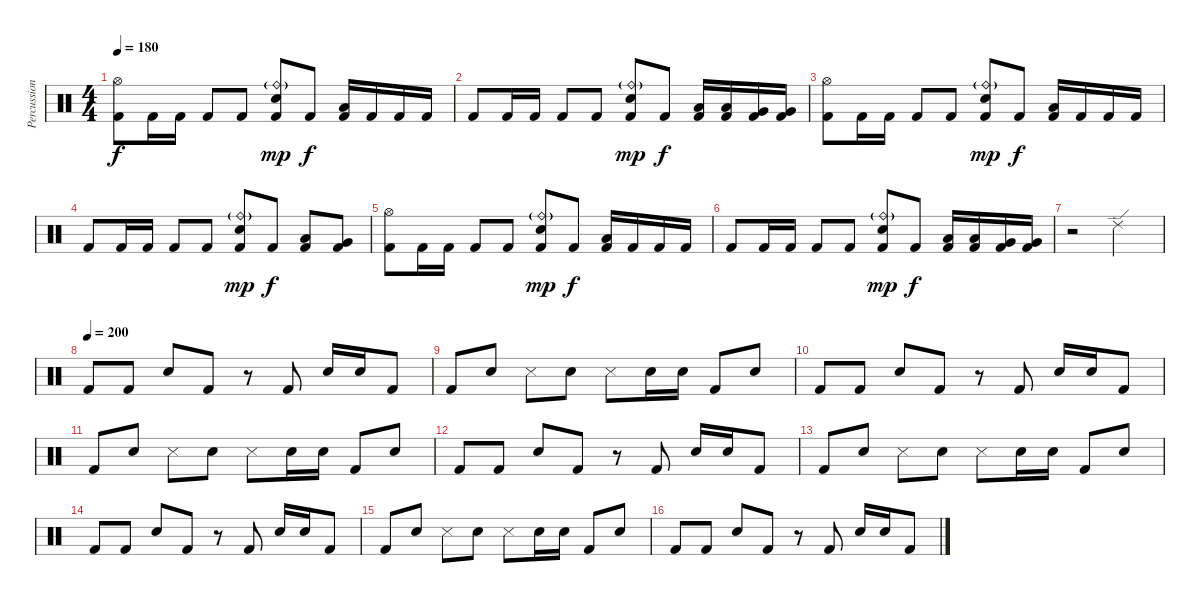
\track ("Percussion" "Percussion") {instrument percussion}
\staff {score}
\articulation defaults
\ts (4 4)
\tempo 180
\clef neutral
\ks c
("Hi-Hat (open)" "Kick (hit) 2").8{dy f} "Kick (hit) 2".16 "Kick (hit) 2".16 "Kick (hit) 2".8 "Kick (hit) 2".8 ("Ride (bell)"{g} "Electric Snare (hit)" "Kick (hit) 2").8{dy mp} "Kick (hit) 2".8{dy f} ("Low Floor Tom (hit)" "Kick (hit) 2").16 "Kick (hit) 2".16 "Kick (hit) 2".16 "Kick (hit) 2".16 |
"Kick (hit) 2".8 "Kick (hit) 2".16 "Kick (hit) 2".16 "Kick (hit) 2".8 "Kick (hit) 2".8 ("Ride (bell)"{g} "Electric Snare (hit)" "Kick (hit) 2").8{dy mp} "Kick (hit) 2".8{dy f} ("Low Tom (hit)" "Kick (hit) 2").16 ("Low Tom (hit)" "Kick (hit) 2").16 ("Very Low Tom (hit)" "Kick (hit) 2").16 ("Very Low Tom (hit)" "Kick (hit) 2").16 |
("Hi-Hat (open)" "Kick (hit) 2").8 "Kick (hit) 2".16 "Kick (hit) 2".16 "Kick (hit) 2".8 "Kick (hit) 2".8 ("Ride (bell)"{g} "Electric Snare (hit)" "Kick (hit) 2").8{dy mp} "Kick (hit) 2".8{dy f} ("Low Floor Tom (hit)" "Kick (hit) 2").16 "Kick (hit) 2".16 "Kick (hit) 2".16 "Kick (hit) 2".16 |
"Kick (hit) 2".8 "Kick (hit) 2".16 "Kick (hit) 2".16 "Kick (hit) 2".8 "Kick (hit) 2".8 ("Ride (bell)"{g} "Electric Snare (hit)" "Kick (hit) 2").8{dy mp} "Kick (hit) 2".8{dy f} ("Low Tom (hit)" "Kick (hit) 2").8 ("Very Low Tom (hit)" "Kick (hit) 2").8 |
("Hi-Hat (open)" "Kick (hit) 2").8 "Kick (hit) 2".16 "Kick (hit) 2".16 "Kick (hit) 2".8 "Kick (hit) 2".8 ("Ride (bell)"{g} "Electric Snare (hit)" "Kick (hit) 2").8{dy mp} "Kick (hit) 2".8{dy f} ("Low Floor Tom (hit)" "Kick (hit) 2").16 "Kick (hit) 2".16 "Kick (hit) 2".16 "Kick (hit) 2".16 |
"Kick (hit) 2".8 "Kick (hit) 2".16 "Kick (hit) 2".16 "Kick (hit) 2".8 "Kick (hit) 2".8 ("Ride (bell)"{g} "Electric Snare (hit)" "Kick (hit) 2").8{dy mp} "Kick (hit) 2".8{dy f} ("Low Tom (hit)" "Kick (hit) 2").16 ("Low Tom (hit)" "Kick (hit) 2").16 ("Very Low Tom (hit)" "Kick (hit) 2").16 ("Very Low Tom (hit)" "Kick (hit) 2").16 |
r.2 "Ride (edge) 2".2 |
\tempo (200)
"Kick (hit) 2".8 "Kick (hit) 2".8 "Electric Snare (hit)".8 "Kick (hit) 2".8 r.8 "Kick (hit) 2".8 "Electric Snare (hit)".16 "Electric Snare (hit)".16 "Kick (hit) 2".8 |
"Kick (hit) 2".8 "Electric Snare (hit)".8 "Snare (side stick) 3".8 "Electric Snare (hit)".8 "Snare (side stick) 3".8 "Electric Snare (hit)".16 "Electric Snare (hit)".16 "Kick (hit) 2".8 "Electric Snare (hit)".8 |
"Kick (hit) 2".8 "Kick (hit) 2".8 "Electric Snare (hit)".8 "Kick (hit) 2".8 r.8 "Kick (hit) 2".8 "Electric Snare (hit)".16 "Electric Snare (hit)".16 "Kick (hit) 2".8 |
"Kick (hit) 2".8 "Electric Snare (hit)".8 "Snare (side stick) 3".8 "Electric Snare (hit)".8 "Snare (side stick) 3".8 "Electric Snare (hit)".16 "Electric Snare (hit)".16 "Kick (hit) 2".8 "Electric Snare (hit)".8 |
"Kick (hit) 2".8 "Kick (hit) 2".8 "Electric Snare (hit)".8 "Kick (hit) 2".8 r.8 "Kick (hit) 2".8 "Electric Snare (hit)".16 "Electric Snare (hit)".16 "Kick (hit) 2".8 |
"Kick (hit) 2".8 "Electric Snare (hit)".8 "Snare (side stick) 3".8 "Electric Snare (hit)".8 "Snare (side stick) 3".8 "Electric Snare (hit)".16 "Electric Snare (hit)".16 "Kick (hit) 2".8 "Electric Snare (hit)".8 |
"Kick (hit) 2".8 "Kick (hit) 2".8 "Electric Snare (hit)".8 "Kick (hit) 2".8 r.8 "Kick (hit) 2".8 "Electric Snare (hit)".16 "Electric Snare (hit)".16 "Kick (hit) 2".8 |
"Kick (hit) 2".8 "Electric Snare (hit)".8 "Snare (side stick) 3".8 "Electric Snare (hit)".8 "Snare (side stick) 3".8 "Electric Snare (hit)".16 "Electric Snare (hit)".16 "Kick (hit) 2".8 "Electric Snare (hit)".8 |
"Kick (hit) 2".8 "Kick (hit) 2".8 "Electric Snare (hit)".8 "Kick (hit) 2".8 r.8 "Kick (hit) 2".8 "Electric Snare (hit)".16 "Electric Snare (hit)".16 "Kick (hit) 2".8
